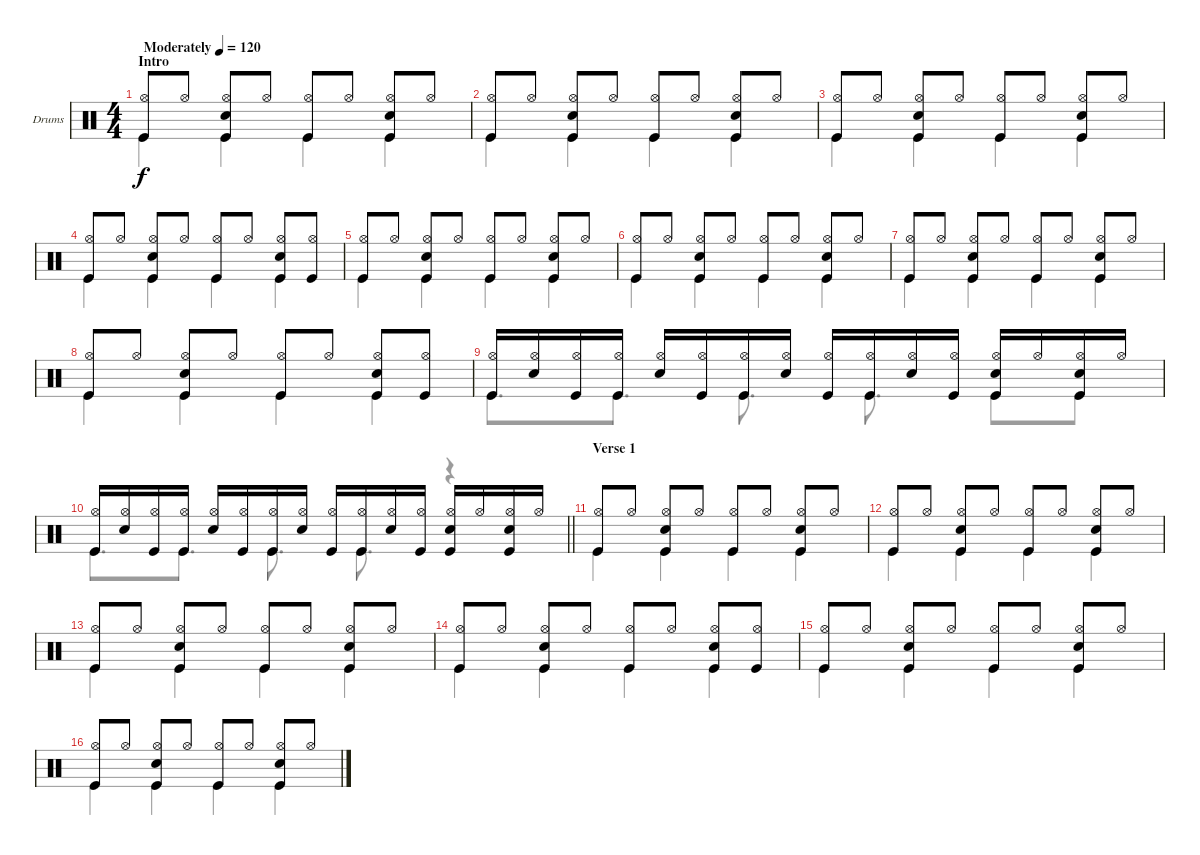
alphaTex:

\bracketExtendMode groupsimilarinstruments
\firstSystemTrackNameOrientation horizontal
\otherSystemsTrackNameOrientation horizontal
\track ("Drumkit" "Drums") {instrument percussion}
\staff {score}
\articulation defaults
\voice
\ts (4 4)
\beaming (8 2 2 2 2)
\section ("" "Intro")
\tempo (120 "Moderately")
\clef neutral
\ks c
("Kick (hit)" "Hi-Hat (open)").8{dy f} "Hi-Hat (open)".8 ("Kick (hit)" "Hi-Hat (open)" "Snare (hit) 2").8 "Hi-Hat (open)".8 ("Kick (hit)" "Hi-Hat (open)").8 "Hi-Hat (open)".8 ("Kick (hit)" "Hi-Hat (open)" "Snare (hit) 2").8 "Hi-Hat (open)".8 |
("Kick (hit)" "Hi-Hat (open)").8 "Hi-Hat (open)".8 ("Kick (hit)" "Hi-Hat (open)" "Snare (hit) 2").8 "Hi-Hat (open)".8 ("Kick (hit)" "Hi-Hat (open)").8 "Hi-Hat (open)".8 ("Kick (hit)" "Hi-Hat (open)" "Snare (hit) 2").8 "Hi-Hat (open)".8 |
("Kick (hit)" "Hi-Hat (open)").8 "Hi-Hat (open)".8 ("Kick (hit)" "Hi-Hat (open)" "Snare (hit) 2").8 "Hi-Hat (open)".8 ("Kick (hit)" "Hi-Hat (open)").8 "Hi-Hat (open)".8 ("Kick (hit)" "Hi-Hat (open)" "Snare (hit) 2").8 "Hi-Hat (open)".8 |
("Kick (hit)" "Hi-Hat (open)").8 "Hi-Hat (open)".8 ("Kick (hit)" "Hi-Hat (open)" "Snare (hit) 2").8 "Hi-Hat (open)".8 ("Kick (hit)" "Hi-Hat (open)").8 "Hi-Hat (open)".8 ("Kick (hit)" "Hi-Hat (open)" "Snare (hit) 2").8 ("Kick (hit)" "Hi-Hat (open)").8 |
("Kick (hit)" "Hi-Hat (open)").8 "Hi-Hat (open)".8 ("Kick (hit)" "Hi-Hat (open)" "Snare (hit) 2").8 "Hi-Hat (open)".8 ("Kick (hit)" "Hi-Hat (open)").8 "Hi-Hat (open)".8 ("Kick (hit)" "Hi-Hat (open)" "Snare (hit) 2").8 "Hi-Hat (open)".8 |
("Kick (hit)" "Hi-Hat (open)").8 "Hi-Hat (open)".8 ("Kick (hit)" "Hi-Hat (open)" "Snare (hit) 2").8 "Hi-Hat (open)".8 ("Kick (hit)" "Hi-Hat (open)").8 "Hi-Hat (open)".8 ("Kick (hit)" "Hi-Hat (open)" "Snare (hit) 2").8 "Hi-Hat (open)".8 |
("Kick (hit)" "Hi-Hat (open)").8 "Hi-Hat (open)".8 ("Kick (hit)" "Hi-Hat (open)" "Snare (hit) 2").8 "Hi-Hat (open)".8 ("Kick (hit)" "Hi-Hat (open)").8 "Hi-Hat (open)".8 ("Kick (hit)" "Hi-Hat (open)" "Snare (hit) 2").8 "Hi-Hat (open)".8 |
("Kick (hit)" "Hi-Hat (open)").8 "Hi-Hat (open)".8 ("Kick (hit)" "Hi-Hat (open)" "Snare (hit) 2").8 "Hi-Hat (open)".8 ("Kick (hit)" "Hi-Hat (open)").8 "Hi-Hat (open)".8 ("Kick (hit)" "Hi-Hat (open)" "Snare (hit) 2").8 ("Kick (hit)" "Hi-Hat (open)").8 |
("Hi-Hat (open)" "Kick (hit)").16 ("Hi-Hat (open)" "Snare (hit) 2").16 ("Hi-Hat (open)" "Kick (hit)").16 ("Hi-Hat (open)" "Kick (hit)").16 ("Hi-Hat (open)" "Snare (hit) 2").16 ("Hi-Hat (open)" "Kick (hit)").16 ("Hi-Hat (open)" "Kick (hit)").16 ("Hi-Hat (open)" "Snare (hit) 2").16 ("Hi-Hat (open)" "Kick (hit)").16 ("Hi-Hat (open)" "Kick (hit)").16 ("Hi-Hat (open)" "Snare (hit) 2").16 ("Hi-Hat (open)" "Kick (hit)").16 ("Hi-Hat (open)" "Snare (hit) 2" "Kick (hit)").16 "Hi-Hat (open)".16 ("Hi-Hat (open)" "Snare (hit) 2" "Kick (hit)").16 "Hi-Hat (open)".16 |
\barLineRight lightlight
("Hi-Hat (open)" "Kick (hit)").16 ("Hi-Hat (open)" "Snare (hit) 2").16 ("Hi-Hat (open)" "Kick (hit)").16 ("Hi-Hat (open)" "Kick (hit)").16 ("Hi-Hat (open)" "Snare (hit) 2").16 ("Hi-Hat (open)" "Kick (hit)").16 ("Hi-Hat (open)" "Kick (hit)").16 ("Hi-Hat (open)" "Snare (hit) 2").16 ("Hi-Hat (open)" "Kick (hit)").16 ("Hi-Hat (open)" "Kick (hit)").16 ("Hi-Hat (open)" "Snare (hit) 2").16 ("Hi-Hat (open)" "Kick (hit)").16 ("Hi-Hat (open)" "Snare (hit) 2" "Kick (hit)").16 "Hi-Hat (open)".16 ("Hi-Hat (open)" "Snare (hit) 2" "Kick (hit)").16 "Hi-Hat (open)".16 |
\section ("" "Verse 1")
("Kick (hit)" "Hi-Hat (open)").8 "Hi-Hat (open)".8 ("Kick (hit)" "Hi-Hat (open)" "Snare (hit) 2").8 "Hi-Hat (open)".8 ("Kick (hit)" "Hi-Hat (open)").8 "Hi-Hat (open)".8 ("Kick (hit)" "Hi-Hat (open)" "Snare (hit) 2").8 "Hi-Hat (open)".8 |
("Kick (hit)" "Hi-Hat (open)").8 "Hi-Hat (open)".8 ("Kick (hit)" "Hi-Hat (open)" "Snare (hit) 2").8 "Hi-Hat (open)".8 ("Kick (hit)" "Hi-Hat (open)").8 "Hi-Hat (open)".8 ("Kick (hit)" "Hi-Hat (open)" "Snare (hit) 2").8 "Hi-Hat (open)".8 |
("Kick (hit)" "Hi-Hat (open)").8 "Hi-Hat (open)".8 ("Kick (hit)" "Hi-Hat (open)" "Snare (hit) 2").8 "Hi-Hat (open)".8 ("Kick (hit)" "Hi-Hat (open)").8 "Hi-Hat (open)".8 ("Kick (hit)" "Hi-Hat (open)" "Snare (hit) 2").8 "Hi-Hat (open)".8 |
("Kick (hit)" "Hi-Hat (open)").8 "Hi-Hat (open)".8 ("Kick (hit)" "Hi-Hat (open)" "Snare (hit) 2").8 "Hi-Hat (open)".8 ("Kick (hit)" "Hi-Hat (open)").8 "Hi-Hat (open)".8 ("Kick (hit)" "Hi-Hat (open)" "Snare (hit) 2").8 ("Kick (hit)" "Hi-Hat (open)").8 |
("Kick (hit)" "Hi-Hat (open)").8 "Hi-Hat (open)".8 ("Kick (hit)" "Hi-Hat (open)" "Snare (hit) 2").8 "Hi-Hat (open)".8 ("Kick (hit)" "Hi-Hat (open)").8 "Hi-Hat (open)".8 ("Kick (hit)" "Hi-Hat (open)" "Snare (hit) 2").8 "Hi-Hat (open)".8 |
("Kick (hit)" "Hi-Hat (open)").8 "Hi-Hat (open)".8 ("Kick (hit)" "Hi-Hat (open)" "Snare (hit) 2").8 "Hi-Hat (open)".8 ("Kick (hit)" "Hi-Hat (open)").8 "Hi-Hat (open)".8 ("Kick (hit)" "Hi-Hat (open)" "Snare (hit) 2").8 "Hi-Hat (open)".8
\voice
\clef neutral
\ottava regular
\simile none
\ks c "Kick (hit)".4{dy f} "Kick (hit)".4 "Kick (hit)".4 "Kick (hit)".4
|
"Kick (hit)".4 "Kick (hit)".4 "Kick (hit)".4 "Kick (hit)".4 |
"Kick (hit)".4 "Kick (hit)".4 "Kick (hit)".4 "Kick (hit)".4 |
"Kick (hit)".4 "Kick (hit)".4 "Kick (hit)".4 "Kick (hit)".4 |
"Kick (hit)".4 "Kick (hit)".4 "Kick (hit)".4 "Kick (hit)".4 |
"Kick (hit)".4 "Kick (hit)".4 "Kick (hit)".4 "Kick (hit)".4 |
"Kick (hit)".4 "Kick (hit)".4 "Kick (hit)".4 "Kick (hit)".4 |
"Kick (hit)".4 "Kick (hit)".4 "Kick (hit)".4 "Kick (hit)".4 |
"Kick (hit)".8{d} "Kick (hit)".8{d} "Kick (hit)".8{d} "Kick (hit)".8{d} "Kick (hit)".8 "Kick (hit)".8 |
\barLineRight lightlight "Kick (hit)".8{d} "Kick (hit)".8{d} "Kick (hit)".8{d} "Kick (hit)".8{d}
r.4 |
"Kick (hit)".4 "Kick (hit)".4 "Kick (hit)".4 "Kick (hit)".4 |
"Kick (hit)".4 "Kick (hit)".4 "Kick (hit)".4 "Kick (hit)".4 |
"Kick (hit)".4 "Kick (hit)".4 "Kick (hit)".4 "Kick (hit)".4 |
"Kick (hit)".4 "Kick (hit)".4 "Kick (hit)".4 "Kick (hit)".4 |
"Kick (hit)".4 "Kick (hit)".4 "Kick (hit)".4 "Kick (hit)".4 |
"Kick (hit)".4 "Kick (hit)".4 "Kick (hit)".4 "Kick (hit)".4
